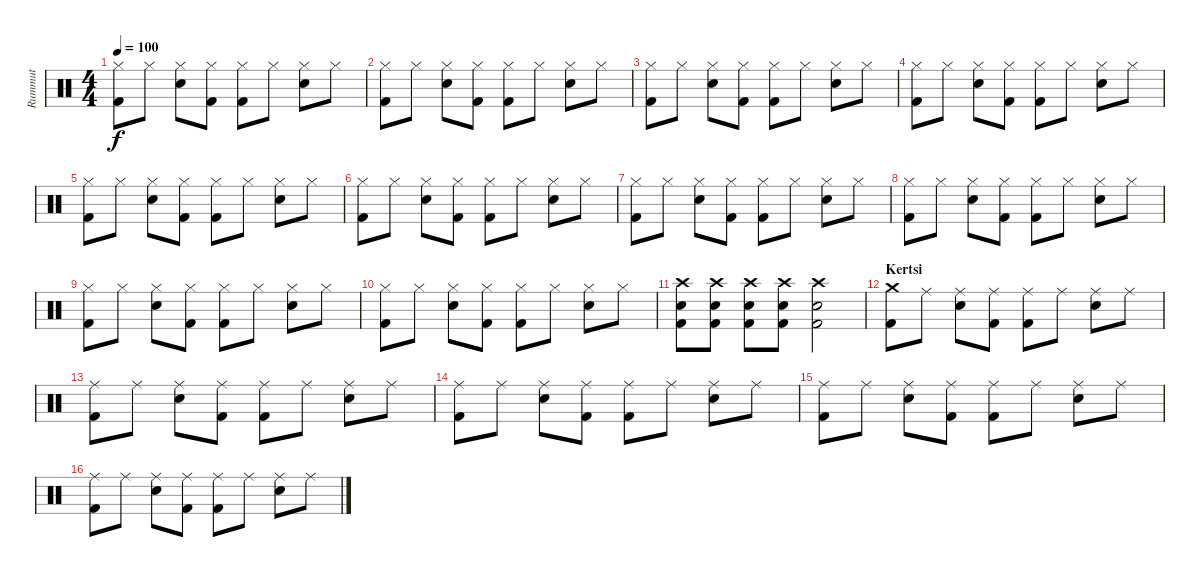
\track ("Rummut" "Rummut") {instrument percussion}
\staff {score}
\articulation defaults
\ts (4 4)
\tempo 100
\clef neutral
\ks c
("Hi-Hat (closed)" "Kick (hit) 2").8{dy f} "Hi-Hat (closed)".8 ("Hi-Hat (closed)" "Snare (hit) 2").8 ("Hi-Hat (closed)" "Kick (hit) 2").8 ("Hi-Hat (closed)" "Kick (hit) 2").8 "Hi-Hat (closed)".8 ("Hi-Hat (closed)" "Snare (hit) 2").8 "Hi-Hat (closed)".8 |
("Hi-Hat (closed)" "Kick (hit) 2").8 "Hi-Hat (closed)".8 ("Hi-Hat (closed)" "Snare (hit) 2").8 ("Hi-Hat (closed)" "Kick (hit) 2").8 ("Hi-Hat (closed)" "Kick (hit) 2").8 "Hi-Hat (closed)".8 ("Hi-Hat (closed)" "Snare (hit) 2").8 "Hi-Hat (closed)".8 |
("Hi-Hat (closed)" "Kick (hit) 2").8 "Hi-Hat (closed)".8 ("Hi-Hat (closed)" "Snare (hit) 2").8 ("Hi-Hat (closed)" "Kick (hit) 2").8 ("Hi-Hat (closed)" "Kick (hit) 2").8 "Hi-Hat (closed)".8 ("Hi-Hat (closed)" "Snare (hit) 2").8 "Hi-Hat (closed)".8 |
("Hi-Hat (closed)" "Kick (hit) 2").8 "Hi-Hat (closed)".8 ("Hi-Hat (closed)" "Snare (hit) 2").8 ("Hi-Hat (closed)" "Kick (hit) 2").8 ("Hi-Hat (closed)" "Kick (hit) 2").8 "Hi-Hat (closed)".8 ("Hi-Hat (closed)" "Snare (hit) 2").8 "Hi-Hat (closed)".8 |
("Hi-Hat (closed)" "Kick (hit) 2").8 "Hi-Hat (closed)".8 ("Hi-Hat (closed)" "Snare (hit) 2").8 ("Hi-Hat (closed)" "Kick (hit) 2").8 ("Hi-Hat (closed)" "Kick (hit) 2").8 "Hi-Hat (closed)".8 ("Hi-Hat (closed)" "Snare (hit) 2").8 "Hi-Hat (closed)".8 |
("Hi-Hat (closed)" "Kick (hit) 2").8 "Hi-Hat (closed)".8 ("Hi-Hat (closed)" "Snare (hit) 2").8 ("Hi-Hat (closed)" "Kick (hit) 2").8 ("Hi-Hat (closed)" "Kick (hit) 2").8 "Hi-Hat (closed)".8 ("Hi-Hat (closed)" "Snare (hit) 2").8 "Hi-Hat (closed)".8 |
("Hi-Hat (closed)" "Kick (hit) 2").8 "Hi-Hat (closed)".8 ("Hi-Hat (closed)" "Snare (hit) 2").8 ("Hi-Hat (closed)" "Kick (hit) 2").8 ("Hi-Hat (closed)" "Kick (hit) 2").8 "Hi-Hat (closed)".8 ("Hi-Hat (closed)" "Snare (hit) 2").8 "Hi-Hat (closed)".8 |
("Hi-Hat (closed)" "Kick (hit) 2").8 "Hi-Hat (closed)".8 ("Hi-Hat (closed)" "Snare (hit) 2").8 ("Hi-Hat (closed)" "Kick (hit) 2").8 ("Hi-Hat (closed)" "Kick (hit) 2").8 "Hi-Hat (closed)".8 ("Hi-Hat (closed)" "Snare (hit) 2").8 "Hi-Hat (closed)".8 |
("Hi-Hat (closed)" "Kick (hit) 2").8 "Hi-Hat (closed)".8 ("Hi-Hat (closed)" "Snare (hit) 2").8 ("Hi-Hat (closed)" "Kick (hit) 2").8 ("Hi-Hat (closed)" "Kick (hit) 2").8 "Hi-Hat (closed)".8 ("Hi-Hat (closed)" "Snare (hit) 2").8 "Hi-Hat (closed)".8 |
("Hi-Hat (closed)" "Kick (hit) 2").8 "Hi-Hat (closed)".8 ("Hi-Hat (closed)" "Snare (hit) 2").8 ("Hi-Hat (closed)" "Kick (hit) 2").8 ("Hi-Hat (closed)" "Kick (hit) 2").8 "Hi-Hat (closed)".8 ("Hi-Hat (closed)" "Snare (hit) 2").8 "Hi-Hat (closed)".8 |
("Crash high (hit)" "Snare (hit) 2" "Kick (hit) 2").8 ("Crash high (hit)" "Snare (hit) 2" "Kick (hit) 2").8 ("Crash high (hit)" "Snare (hit) 2" "Kick (hit) 2").8 ("Crash high (hit)" "Snare (hit) 2" "Kick (hit) 2").8 ("Crash high (hit)" "Snare (hit) 2" "Kick (hit) 2").2 |
\section ("" "Kertsi")
("Crash medium (hit)" "Kick (hit) 2").8 "Ride (middle)".8 ("Ride (middle)" "Snare (hit) 2").8 ("Ride (middle)" "Kick (hit) 2").8 ("Ride (middle)" "Kick (hit) 2").8 "Ride (middle)".8 ("Ride (middle)" "Snare (hit) 2").8 "Ride (middle)".8 |
("Ride (middle)" "Kick (hit) 2").8 "Ride (middle)".8 ("Ride (middle)" "Snare (hit) 2").8 ("Ride (middle)" "Kick (hit) 2").8 ("Ride (middle)" "Kick (hit) 2").8 "Ride (middle)".8 ("Ride (middle)" "Snare (hit) 2").8 "Ride (middle)".8 |
("Ride (middle)" "Kick (hit) 2").8 "Ride (middle)".8 ("Ride (middle)" "Snare (hit) 2").8 ("Ride (middle)" "Kick (hit) 2").8 ("Ride (middle)" "Kick (hit) 2").8 "Ride (middle)".8 ("Ride (middle)" "Snare (hit) 2").8 "Ride (middle)".8 |
("Ride (middle)" "Kick (hit) 2").8 "Ride (middle)".8 ("Ride (middle)" "Snare (hit) 2").8 ("Ride (middle)" "Kick (hit) 2").8 ("Ride (middle)" "Kick (hit) 2").8 "Ride (middle)".8 ("Ride (middle)" "Snare (hit) 2").8 "Ride (middle)".8 |
("Ride (middle)" "Kick (hit) 2").8 "Ride (middle)".8 ("Ride (middle)" "Snare (hit) 2").8 ("Ride (middle)" "Kick (hit) 2").8 ("Ride (middle)" "Kick (hit) 2").8 "Ride (middle)".8 ("Ride (middle)" "Snare (hit) 2").8 "Ride (middle)".8
